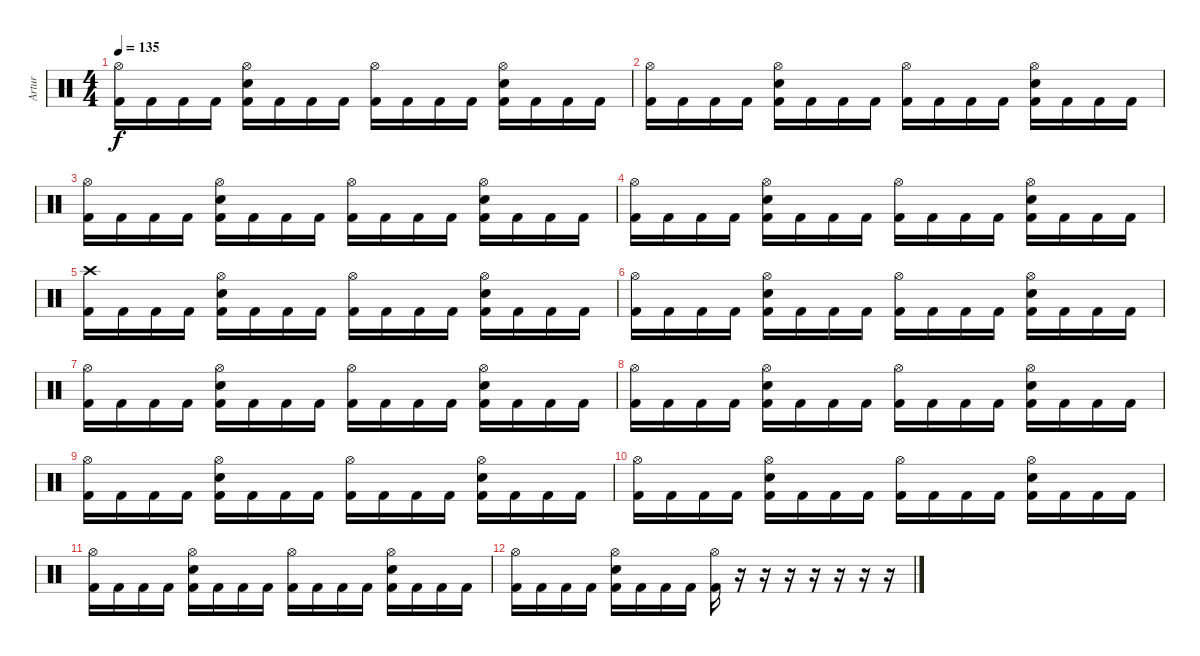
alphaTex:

\track ("Artur" "Artur") {instrument percussion}
\staff {score}
\articulation defaults
\ts (4 4)
\tempo 135
\clef neutral
\ks c
("Hi-Hat (open)" "Kick (hit) 2").16{dy f} "Kick (hit) 2".16 "Kick (hit) 2".16 "Kick (hit) 2".16 ("Hi-Hat (open)" "Electric Snare (hit)" "Kick (hit) 2").16 "Kick (hit) 2".16 "Kick (hit) 2".16 "Kick (hit) 2".16 ("Hi-Hat (open)" "Kick (hit) 2").16 "Kick (hit) 2".16 "Kick (hit) 2".16 "Kick (hit) 2".16 ("Hi-Hat (open)" "Electric Snare (hit)" "Kick (hit) 2").16 "Kick (hit) 2".16 "Kick (hit) 2".16 "Kick (hit) 2".16 |
("Hi-Hat (open)" "Kick (hit) 2").16 "Kick (hit) 2".16 "Kick (hit) 2".16 "Kick (hit) 2".16 ("Hi-Hat (open)" "Electric Snare (hit)" "Kick (hit) 2").16 "Kick (hit) 2".16 "Kick (hit) 2".16 "Kick (hit) 2".16 ("Hi-Hat (open)" "Kick (hit) 2").16 "Kick (hit) 2".16 "Kick (hit) 2".16 "Kick (hit) 2".16 ("Hi-Hat (open)" "Electric Snare (hit)" "Kick (hit) 2").16 "Kick (hit) 2".16 "Kick (hit) 2".16 "Kick (hit) 2".16 |
("Hi-Hat (open)" "Kick (hit) 2").16 "Kick (hit) 2".16 "Kick (hit) 2".16 "Kick (hit) 2".16 ("Hi-Hat (open)" "Electric Snare (hit)" "Kick (hit) 2").16 "Kick (hit) 2".16 "Kick (hit) 2".16 "Kick (hit) 2".16 ("Hi-Hat (open)" "Kick (hit) 2").16 "Kick (hit) 2".16 "Kick (hit) 2".16 "Kick (hit) 2".16 ("Hi-Hat (open)" "Electric Snare (hit)" "Kick (hit) 2").16 "Kick (hit) 2".16 "Kick (hit) 2".16 "Kick (hit) 2".16 |
("Hi-Hat (open)" "Kick (hit) 2").16 "Kick (hit) 2".16 "Kick (hit) 2".16 "Kick (hit) 2".16 ("Hi-Hat (open)" "Electric Snare (hit)" "Kick (hit) 2").16 "Kick (hit) 2".16 "Kick (hit) 2".16 "Kick (hit) 2".16 ("Hi-Hat (open)" "Kick (hit) 2").16 "Kick (hit) 2".16 "Kick (hit) 2".16 "Kick (hit) 2".16 ("Hi-Hat (open)" "Electric Snare (hit)" "Kick (hit) 2").16 "Kick (hit) 2".16 "Kick (hit) 2".16 "Kick (hit) 2".16 |
("Crash high (hit)" "Kick (hit) 2").16 "Kick (hit) 2".16 "Kick (hit) 2".16 "Kick (hit) 2".16 ("Hi-Hat (open)" "Electric Snare (hit)" "Kick (hit) 2").16 "Kick (hit) 2".16 "Kick (hit) 2".16 "Kick (hit) 2".16 ("Hi-Hat (open)" "Kick (hit) 2").16 "Kick (hit) 2".16 "Kick (hit) 2".16 "Kick (hit) 2".16 ("Hi-Hat (open)" "Electric Snare (hit)" "Kick (hit) 2").16 "Kick (hit) 2".16 "Kick (hit) 2".16 "Kick (hit) 2".16 |
("Hi-Hat (open)" "Kick (hit) 2").16 "Kick (hit) 2".16 "Kick (hit) 2".16 "Kick (hit) 2".16 ("Hi-Hat (open)" "Electric Snare (hit)" "Kick (hit) 2").16 "Kick (hit) 2".16 "Kick (hit) 2".16 "Kick (hit) 2".16 ("Hi-Hat (open)" "Kick (hit) 2").16 "Kick (hit) 2".16 "Kick (hit) 2".16 "Kick (hit) 2".16 ("Hi-Hat (open)" "Electric Snare (hit)" "Kick (hit) 2").16 "Kick (hit) 2".16 "Kick (hit) 2".16 "Kick (hit) 2".16 |
("Hi-Hat (open)" "Kick (hit) 2").16 "Kick (hit) 2".16 "Kick (hit) 2".16 "Kick (hit) 2".16 ("Hi-Hat (open)" "Electric Snare (hit)" "Kick (hit) 2").16 "Kick (hit) 2".16 "Kick (hit) 2".16 "Kick (hit) 2".16 ("Hi-Hat (open)" "Kick (hit) 2").16 "Kick (hit) 2".16 "Kick (hit) 2".16 "Kick (hit) 2".16 ("Hi-Hat (open)" "Electric Snare (hit)" "Kick (hit) 2").16 "Kick (hit) 2".16 "Kick (hit) 2".16 "Kick (hit) 2".16 |
("Hi-Hat (open)" "Kick (hit) 2").16 "Kick (hit) 2".16 "Kick (hit) 2".16 "Kick (hit) 2".16 ("Hi-Hat (open)" "Electric Snare (hit)" "Kick (hit) 2").16 "Kick (hit) 2".16 "Kick (hit) 2".16 "Kick (hit) 2".16 ("Hi-Hat (open)" "Kick (hit) 2").16 "Kick (hit) 2".16 "Kick (hit) 2".16 "Kick (hit) 2".16 ("Hi-Hat (open)" "Electric Snare (hit)" "Kick (hit) 2").16 "Kick (hit) 2".16 "Kick (hit) 2".16 "Kick (hit) 2".16 |
("Hi-Hat (open)" "Kick (hit) 2").16 "Kick (hit) 2".16 "Kick (hit) 2".16 "Kick (hit) 2".16 ("Hi-Hat (open)" "Electric Snare (hit)" "Kick (hit) 2").16 "Kick (hit) 2".16 "Kick (hit) 2".16 "Kick (hit) 2".16 ("Hi-Hat (open)" "Kick (hit) 2").16 "Kick (hit) 2".16 "Kick (hit) 2".16 "Kick (hit) 2".16 ("Hi-Hat (open)" "Electric Snare (hit)" "Kick (hit) 2").16 "Kick (hit) 2".16 "Kick (hit) 2".16 "Kick (hit) 2".16 |
("Hi-Hat (open)" "Kick (hit) 2").16 "Kick (hit) 2".16 "Kick (hit) 2".16 "Kick (hit) 2".16 ("Hi-Hat (open)" "Electric Snare (hit)" "Kick (hit) 2").16 "Kick (hit) 2".16 "Kick (hit) 2".16 "Kick (hit) 2".16 ("Hi-Hat (open)" "Kick (hit) 2").16 "Kick (hit) 2".16 "Kick (hit) 2".16 "Kick (hit) 2".16 ("Hi-Hat (open)" "Electric Snare (hit)" "Kick (hit) 2").16 "Kick (hit) 2".16 "Kick (hit) 2".16 "Kick (hit) 2".16 |
("Hi-Hat (open)" "Kick (hit) 2").16 "Kick (hit) 2".16 "Kick (hit) 2".16 "Kick (hit) 2".16 ("Hi-Hat (open)" "Electric Snare (hit)" "Kick (hit) 2").16 "Kick (hit) 2".16 "Kick (hit) 2".16 "Kick (hit) 2".16 ("Hi-Hat (open)" "Kick (hit) 2").16 "Kick (hit) 2".16 "Kick (hit) 2".16 "Kick (hit) 2".16 ("Hi-Hat (open)" "Electric Snare (hit)" "Kick (hit) 2").16 "Kick (hit) 2".16 "Kick (hit) 2".16 "Kick (hit) 2".16 |
("Hi-Hat (open)" "Kick (hit) 2").16 "Kick (hit) 2".16 "Kick (hit) 2".16 "Kick (hit) 2".16 ("Hi-Hat (open)" "Electric Snare (hit)" "Kick (hit) 2").16 "Kick (hit) 2".16 "Kick (hit) 2".16 "Kick (hit) 2".16 ("Hi-Hat (open)" "Kick (hit) 2").16 r.16 r.16 r.16 r.16 r.16 r.16 r.16
